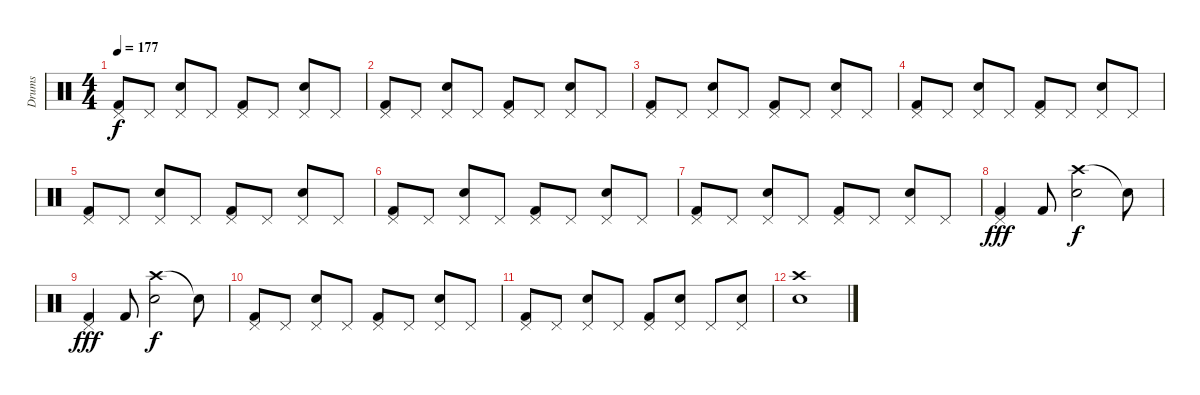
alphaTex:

\track ("Drums" "Drums") {instrument percussion}
\staff {score}
\articulation defaults
\ts (4 4)
\tempo 177
\clef neutral
\ks c
("Pedal Hi-Hat (hit)" "Kick (hit) 2").8{dy f} "Pedal Hi-Hat (hit)".8 ("Pedal Hi-Hat (hit)" "Electric Snare (hit)").8 "Pedal Hi-Hat (hit)".8 ("Pedal Hi-Hat (hit)" "Kick (hit) 2").8 "Pedal Hi-Hat (hit)".8 ("Pedal Hi-Hat (hit)" "Electric Snare (hit)").8 "Pedal Hi-Hat (hit)".8 |
("Pedal Hi-Hat (hit)" "Kick (hit) 2").8 "Pedal Hi-Hat (hit)".8 ("Pedal Hi-Hat (hit)" "Electric Snare (hit)").8 "Pedal Hi-Hat (hit)".8 ("Pedal Hi-Hat (hit)" "Kick (hit) 2").8 "Pedal Hi-Hat (hit)".8 ("Pedal Hi-Hat (hit)" "Electric Snare (hit)").8 "Pedal Hi-Hat (hit)".8 |
("Pedal Hi-Hat (hit)" "Kick (hit) 2").8 "Pedal Hi-Hat (hit)".8 ("Pedal Hi-Hat (hit)" "Electric Snare (hit)").8 "Pedal Hi-Hat (hit)".8 ("Pedal Hi-Hat (hit)" "Kick (hit) 2").8 "Pedal Hi-Hat (hit)".8 ("Pedal Hi-Hat (hit)" "Electric Snare (hit)").8 "Pedal Hi-Hat (hit)".8 |
("Pedal Hi-Hat (hit)" "Kick (hit) 2").8 "Pedal Hi-Hat (hit)".8 ("Pedal Hi-Hat (hit)" "Electric Snare (hit)").8 "Pedal Hi-Hat (hit)".8 ("Pedal Hi-Hat (hit)" "Kick (hit) 2").8 "Pedal Hi-Hat (hit)".8 ("Pedal Hi-Hat (hit)" "Electric Snare (hit)").8 "Pedal Hi-Hat (hit)".8 |
("Pedal Hi-Hat (hit)" "Kick (hit) 2").8 "Pedal Hi-Hat (hit)".8 ("Pedal Hi-Hat (hit)" "Electric Snare (hit)").8 "Pedal Hi-Hat (hit)".8 ("Pedal Hi-Hat (hit)" "Kick (hit) 2").8 "Pedal Hi-Hat (hit)".8 ("Pedal Hi-Hat (hit)" "Electric Snare (hit)").8 "Pedal Hi-Hat (hit)".8 |
("Pedal Hi-Hat (hit)" "Kick (hit) 2").8 "Pedal Hi-Hat (hit)".8 ("Pedal Hi-Hat (hit)" "Electric Snare (hit)").8 "Pedal Hi-Hat (hit)".8 ("Pedal Hi-Hat (hit)" "Kick (hit) 2").8 "Pedal Hi-Hat (hit)".8 ("Pedal Hi-Hat (hit)" "Electric Snare (hit)").8 "Pedal Hi-Hat (hit)".8 |
("Pedal Hi-Hat (hit)" "Kick (hit) 2").8 "Pedal Hi-Hat (hit)".8 ("Pedal Hi-Hat (hit)" "Electric Snare (hit)").8 "Pedal Hi-Hat (hit)".8 ("Pedal Hi-Hat (hit)" "Kick (hit) 2").8 "Pedal Hi-Hat (hit)".8 ("Pedal Hi-Hat (hit)" "Electric Snare (hit)").8 "Pedal Hi-Hat (hit)".8 |
("Pedal Hi-Hat (hit)" "Kick (hit) 2").4{dy fff} "Kick (hit) 2".8 ("Crash high (hit)" "Electric Snare (hit)").2{dy f} "Snare (hit)"{t}.8 |
("Pedal Hi-Hat (hit)" "Kick (hit) 2").4{dy fff} "Kick (hit) 2".8 ("Crash high (hit)" "Electric Snare (hit)").2{dy f} "Snare (hit)"{t}.8 |
("Pedal Hi-Hat (hit)" "Kick (hit) 2").8 "Pedal Hi-Hat (hit)".8 ("Pedal Hi-Hat (hit)" "Electric Snare (hit)").8 "Pedal Hi-Hat (hit)".8 ("Pedal Hi-Hat (hit)" "Kick (hit) 2").8 "Pedal Hi-Hat (hit)".8 ("Pedal Hi-Hat (hit)" "Electric Snare (hit)").8 "Pedal Hi-Hat (hit)".8 |
("Pedal Hi-Hat (hit)" "Kick (hit) 2").8 "Pedal Hi-Hat (hit)".8 ("Pedal Hi-Hat (hit)" "Electric Snare (hit)").8 "Pedal Hi-Hat (hit)".8 ("Pedal Hi-Hat (hit)" "Kick (hit) 2").8 ("Pedal Hi-Hat (hit)" "Electric Snare (hit)").8 "Pedal Hi-Hat (hit)".8 ("Pedal Hi-Hat (hit)" "Electric Snare (hit)").8 |
("Crash high (hit)" "Electric Snare (hit)").1
